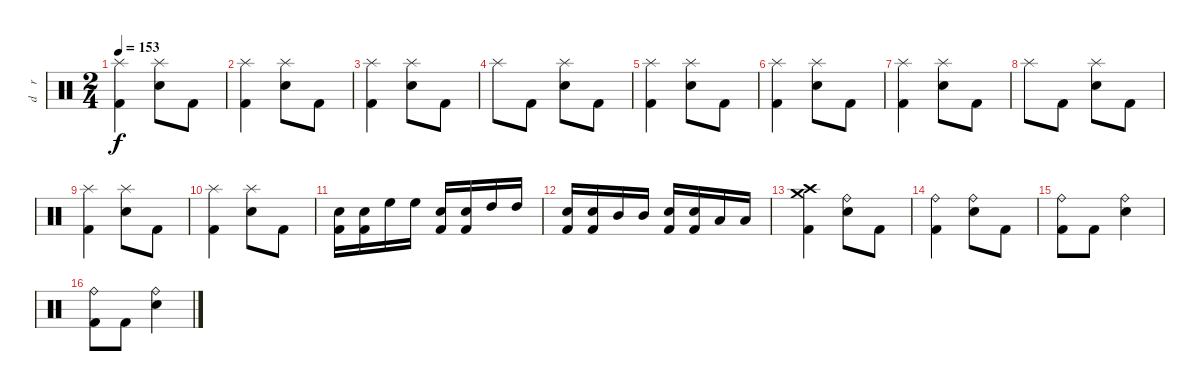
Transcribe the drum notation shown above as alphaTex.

\track ("d    r     u    m    s" "d    r    ") {instrument percussion}
\staff {score}
\articulation defaults
\ts (2 4)
\tempo 153
\clef neutral
\ks c
("Splash (hit)" "Kick (hit) 2").4{dy f} ("Splash (hit)" "Electric Snare (hit)").8 "Kick (hit) 2".8 |
("Splash (hit)" "Kick (hit) 2").4 ("Splash (hit)" "Electric Snare (hit)").8 "Kick (hit) 2".8 |
("Splash (hit)" "Kick (hit) 2").4 ("Splash (hit)" "Electric Snare (hit)").8 "Kick (hit) 2".8 |
"Splash (hit)".8 "Kick (hit) 2".8 ("Splash (hit)" "Electric Snare (hit)").8 "Kick (hit) 2".8 |
("Splash (hit)" "Kick (hit) 2").4 ("Splash (hit)" "Electric Snare (hit)").8 "Kick (hit) 2".8 |
("Splash (hit)" "Kick (hit) 2").4 ("Splash (hit)" "Electric Snare (hit)").8 "Kick (hit) 2".8 |
("Splash (hit)" "Kick (hit) 2").4 ("Splash (hit)" "Electric Snare (hit)").8 "Kick (hit) 2".8 |
"Splash (hit)".8 "Kick (hit) 2".8 ("Splash (hit)" "Electric Snare (hit)").8 "Kick (hit) 2".8 |
("Splash (hit)" "Kick (hit) 2").4 ("Splash (hit)" "Electric Snare (hit)").8 "Kick (hit) 2".8 |
("Splash (hit)" "Kick (hit) 2").4 ("Splash (hit)" "Electric Snare (hit)").8 "Kick (hit) 2".8 |
("Electric Snare (hit)" "Kick (hit) 2").16 ("Electric Snare (hit)" "Kick (hit) 2").16 "High Floor Tom (hit)".16 "High Floor Tom (hit)".16 ("Electric Snare (hit)" "Kick (hit) 2").16 ("Electric Snare (hit)" "Kick (hit) 2").16 "High Tom (hit)".16 "High Tom (hit)".16 |
("Electric Snare (hit)" "Kick (hit) 2").16 ("Electric Snare (hit)" "Kick (hit) 2").16 "Mid Tom (hit)".16 "Mid Tom (hit)".16 ("Electric Snare (hit)" "Kick (hit) 2").16 ("Electric Snare (hit)" "Kick (hit) 2").16 "Low Tom (hit)".16 "Low Tom (hit)".16 |
("Crash high (hit)" "Crash medium (hit)" "Kick (hit) 2").4 ("Ride (bell)" "Electric Snare (hit)").8 "Kick (hit) 2".8 |
("Ride (bell)" "Kick (hit) 2").4 ("Ride (bell)" "Electric Snare (hit)").8 "Kick (hit) 2".8 |
("Ride (bell)" "Kick (hit) 2").8 "Kick (hit) 2".8 ("Ride (bell)" "Electric Snare (hit)").4 |
("Ride (bell)" "Kick (hit) 2").8 "Kick (hit) 2".8 ("Ride (bell)" "Electric Snare (hit)").4
